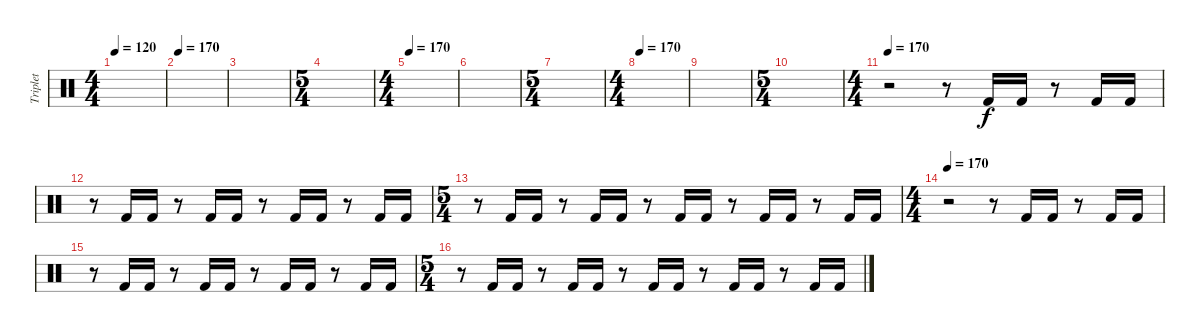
\track ("Triplet" "Triplet") {instrument percussion}
\staff {score}
\articulation defaults
\ts (4 4)
\tempo 120
\clef neutral
\ks c
|
\tempo 170
|
|
\ts (5 4)
|
\ts (4 4)
\tempo 170
|
|
\ts (5 4)
|
\ts (4 4)
\tempo 170
|
|
\ts (5 4)
|
\ts (4 4)
\tempo 170
r.2 r.8 "Kick (hit) 2".16 "Kick (hit) 2".16 r.8 "Kick (hit) 2".16 "Kick (hit) 2".16 |
r.8 "Kick (hit) 2".16 "Kick (hit) 2".16 r.8 "Kick (hit) 2".16 "Kick (hit) 2".16 r.8 "Kick (hit) 2".16 "Kick (hit) 2".16 r.8 "Kick (hit) 2".16 "Kick (hit) 2".16 |
\ts (5 4)
r.8 "Kick (hit) 2".16 "Kick (hit) 2".16 r.8 "Kick (hit) 2".16 "Kick (hit) 2".16 r.8 "Kick (hit) 2".16 "Kick (hit) 2".16 r.8 "Kick (hit) 2".16 "Kick (hit) 2".16 r.8 "Kick (hit) 2".16 "Kick (hit) 2".16 |
\ts (4 4)
\tempo 170
r.2 r.8 "Kick (hit) 2".16 "Kick (hit) 2".16 r.8 "Kick (hit) 2".16 "Kick (hit) 2".16 |
r.8 "Kick (hit) 2".16 "Kick (hit) 2".16 r.8 "Kick (hit) 2".16 "Kick (hit) 2".16 r.8 "Kick (hit) 2".16 "Kick (hit) 2".16 r.8 "Kick (hit) 2".16 "Kick (hit) 2".16 |
\ts (5 4)
r.8 "Kick (hit) 2".16 "Kick (hit) 2".16 r.8 "Kick (hit) 2".16 "Kick (hit) 2".16 r.8 "Kick (hit) 2".16 "Kick (hit) 2".16 r.8 "Kick (hit) 2".16 "Kick (hit) 2".16 r.8 "Kick (hit) 2".16 "Kick (hit) 2".16
